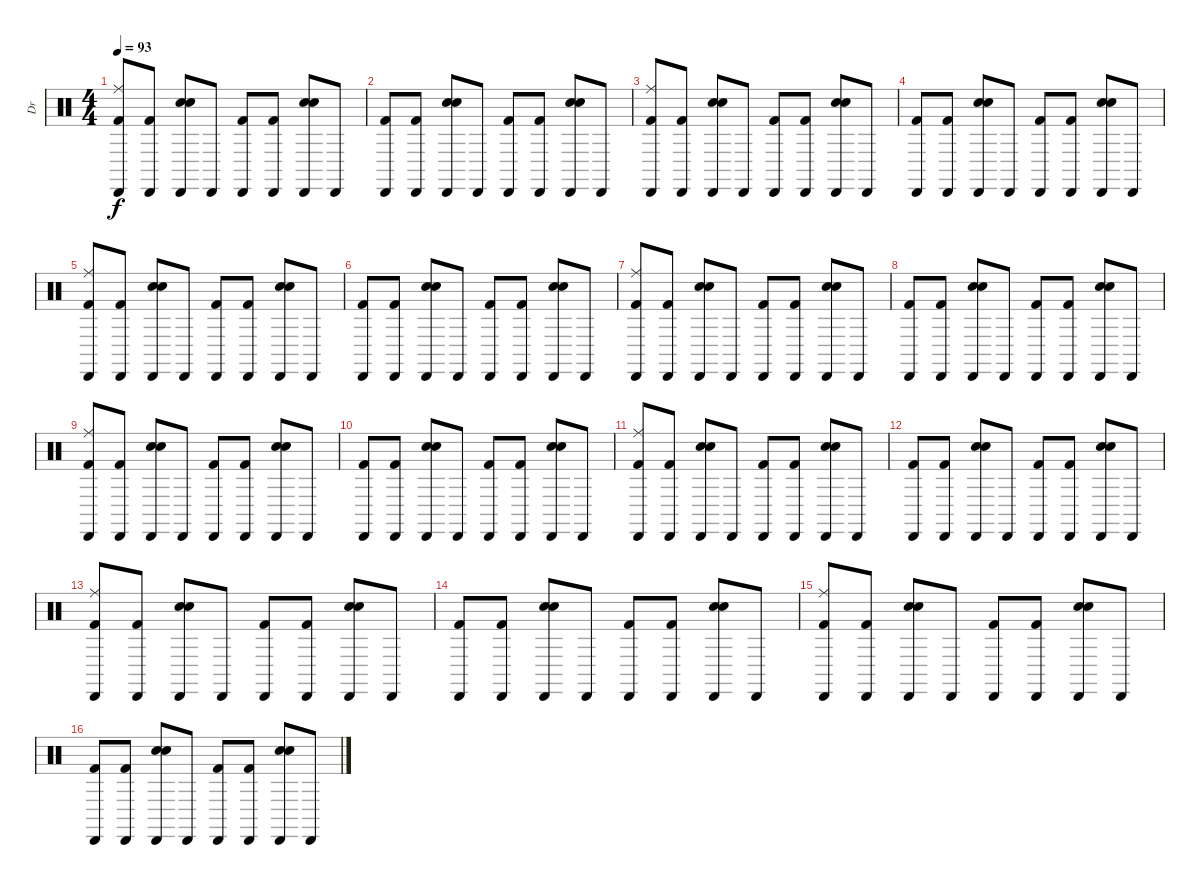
\track ("Dr" "Dr") {instrument percussion}
\staff {score}
\articulation defaults
\ts (4 4)
\tempo 93
\clef neutral
\ks c
("Ride (middle)" "Cabasa (hit)" "Kick (hit) 2").8{dy f} ("Cabasa (hit)" "Kick (hit) 2").8 ("Cabasa (hit)" "Electric Snare (hit)" "Hand Clap (hit)").8 "Cabasa (hit)".8 ("Cabasa (hit)" "Kick (hit) 2").8 ("Cabasa (hit)" "Kick (hit) 2").8 ("Cabasa (hit)" "Electric Snare (hit)" "Hand Clap (hit)").8 "Cabasa (hit)".8 |
("Cabasa (hit)" "Kick (hit) 2").8 ("Cabasa (hit)" "Kick (hit) 2").8 ("Cabasa (hit)" "Electric Snare (hit)" "Hand Clap (hit)").8 "Cabasa (hit)".8 ("Cabasa (hit)" "Kick (hit) 2").8 ("Cabasa (hit)" "Kick (hit) 2").8 ("Cabasa (hit)" "Electric Snare (hit)" "Hand Clap (hit)").8 "Cabasa (hit)".8 |
("Ride (middle)" "Cabasa (hit)" "Kick (hit) 2").8 ("Cabasa (hit)" "Kick (hit) 2").8 ("Cabasa (hit)" "Electric Snare (hit)" "Hand Clap (hit)").8 "Cabasa (hit)".8 ("Cabasa (hit)" "Kick (hit) 2").8 ("Cabasa (hit)" "Kick (hit) 2").8 ("Cabasa (hit)" "Electric Snare (hit)" "Hand Clap (hit)").8 "Cabasa (hit)".8 |
("Cabasa (hit)" "Kick (hit) 2").8 ("Cabasa (hit)" "Kick (hit) 2").8 ("Cabasa (hit)" "Electric Snare (hit)" "Hand Clap (hit)").8 "Cabasa (hit)".8 ("Cabasa (hit)" "Kick (hit) 2").8 ("Cabasa (hit)" "Kick (hit) 2").8 ("Cabasa (hit)" "Electric Snare (hit)" "Hand Clap (hit)").8 "Cabasa (hit)".8 |
("Ride (middle)" "Cabasa (hit)" "Kick (hit) 2").8 ("Cabasa (hit)" "Kick (hit) 2").8 ("Cabasa (hit)" "Electric Snare (hit)" "Hand Clap (hit)").8 "Cabasa (hit)".8 ("Cabasa (hit)" "Kick (hit) 2").8 ("Cabasa (hit)" "Kick (hit) 2").8 ("Cabasa (hit)" "Electric Snare (hit)" "Hand Clap (hit)").8 "Cabasa (hit)".8 |
("Cabasa (hit)" "Kick (hit) 2").8 ("Cabasa (hit)" "Kick (hit) 2").8 ("Cabasa (hit)" "Electric Snare (hit)" "Hand Clap (hit)").8 "Cabasa (hit)".8 ("Cabasa (hit)" "Kick (hit) 2").8 ("Cabasa (hit)" "Kick (hit) 2").8 ("Cabasa (hit)" "Electric Snare (hit)" "Hand Clap (hit)").8 "Cabasa (hit)".8 |
("Ride (middle)" "Cabasa (hit)" "Kick (hit) 2").8 ("Cabasa (hit)" "Kick (hit) 2").8 ("Cabasa (hit)" "Electric Snare (hit)" "Hand Clap (hit)").8 "Cabasa (hit)".8 ("Cabasa (hit)" "Kick (hit) 2").8 ("Cabasa (hit)" "Kick (hit) 2").8 ("Cabasa (hit)" "Electric Snare (hit)" "Hand Clap (hit)").8 "Cabasa (hit)".8 |
("Cabasa (hit)" "Kick (hit) 2").8 ("Cabasa (hit)" "Kick (hit) 2").8 ("Cabasa (hit)" "Electric Snare (hit)" "Hand Clap (hit)").8 "Cabasa (hit)".8 ("Cabasa (hit)" "Kick (hit) 2").8 ("Cabasa (hit)" "Kick (hit) 2").8 ("Cabasa (hit)" "Electric Snare (hit)" "Hand Clap (hit)").8 "Cabasa (hit)".8 |
("Ride (middle)" "Cabasa (hit)" "Kick (hit) 2").8 ("Cabasa (hit)" "Kick (hit) 2").8 ("Cabasa (hit)" "Electric Snare (hit)" "Hand Clap (hit)").8 "Cabasa (hit)".8 ("Cabasa (hit)" "Kick (hit) 2").8 ("Cabasa (hit)" "Kick (hit) 2").8 ("Cabasa (hit)" "Electric Snare (hit)" "Hand Clap (hit)").8 "Cabasa (hit)".8 |
("Cabasa (hit)" "Kick (hit) 2").8 ("Cabasa (hit)" "Kick (hit) 2").8 ("Cabasa (hit)" "Electric Snare (hit)" "Hand Clap (hit)").8 "Cabasa (hit)".8 ("Cabasa (hit)" "Kick (hit) 2").8 ("Cabasa (hit)" "Kick (hit) 2").8 ("Cabasa (hit)" "Electric Snare (hit)" "Hand Clap (hit)").8 "Cabasa (hit)".8 |
("Ride (middle)" "Cabasa (hit)" "Kick (hit) 2").8 ("Cabasa (hit)" "Kick (hit) 2").8 ("Cabasa (hit)" "Electric Snare (hit)" "Hand Clap (hit)").8 "Cabasa (hit)".8 ("Cabasa (hit)" "Kick (hit) 2").8 ("Cabasa (hit)" "Kick (hit) 2").8 ("Cabasa (hit)" "Electric Snare (hit)" "Hand Clap (hit)").8 "Cabasa (hit)".8 |
("Cabasa (hit)" "Kick (hit) 2").8 ("Cabasa (hit)" "Kick (hit) 2").8 ("Cabasa (hit)" "Electric Snare (hit)" "Hand Clap (hit)").8 "Cabasa (hit)".8 ("Cabasa (hit)" "Kick (hit) 2").8 ("Cabasa (hit)" "Kick (hit) 2").8 ("Cabasa (hit)" "Electric Snare (hit)" "Hand Clap (hit)").8 "Cabasa (hit)".8 |
("Ride (middle)" "Cabasa (hit)" "Kick (hit) 2").8 ("Cabasa (hit)" "Kick (hit) 2").8 ("Cabasa (hit)" "Electric Snare (hit)" "Hand Clap (hit)").8 "Cabasa (hit)".8 ("Cabasa (hit)" "Kick (hit) 2").8 ("Cabasa (hit)" "Kick (hit) 2").8 ("Cabasa (hit)" "Electric Snare (hit)" "Hand Clap (hit)").8 "Cabasa (hit)".8 |
("Cabasa (hit)" "Kick (hit) 2").8 ("Cabasa (hit)" "Kick (hit) 2").8 ("Cabasa (hit)" "Electric Snare (hit)" "Hand Clap (hit)").8 "Cabasa (hit)".8 ("Cabasa (hit)" "Kick (hit) 2").8 ("Cabasa (hit)" "Kick (hit) 2").8 ("Cabasa (hit)" "Electric Snare (hit)" "Hand Clap (hit)").8 "Cabasa (hit)".8 |
("Ride (middle)" "Cabasa (hit)" "Kick (hit) 2").8 ("Cabasa (hit)" "Kick (hit) 2").8 ("Cabasa (hit)" "Electric Snare (hit)" "Hand Clap (hit)").8 "Cabasa (hit)".8 ("Cabasa (hit)" "Kick (hit) 2").8 ("Cabasa (hit)" "Kick (hit) 2").8 ("Cabasa (hit)" "Electric Snare (hit)" "Hand Clap (hit)").8 "Cabasa (hit)".8 |
("Cabasa (hit)" "Kick (hit) 2").8 ("Cabasa (hit)" "Kick (hit) 2").8 ("Cabasa (hit)" "Electric Snare (hit)" "Hand Clap (hit)").8 "Cabasa (hit)".8 ("Cabasa (hit)" "Kick (hit) 2").8 ("Cabasa (hit)" "Kick (hit) 2").8 ("Cabasa (hit)" "Electric Snare (hit)" "Hand Clap (hit)").8 "Cabasa (hit)".8
